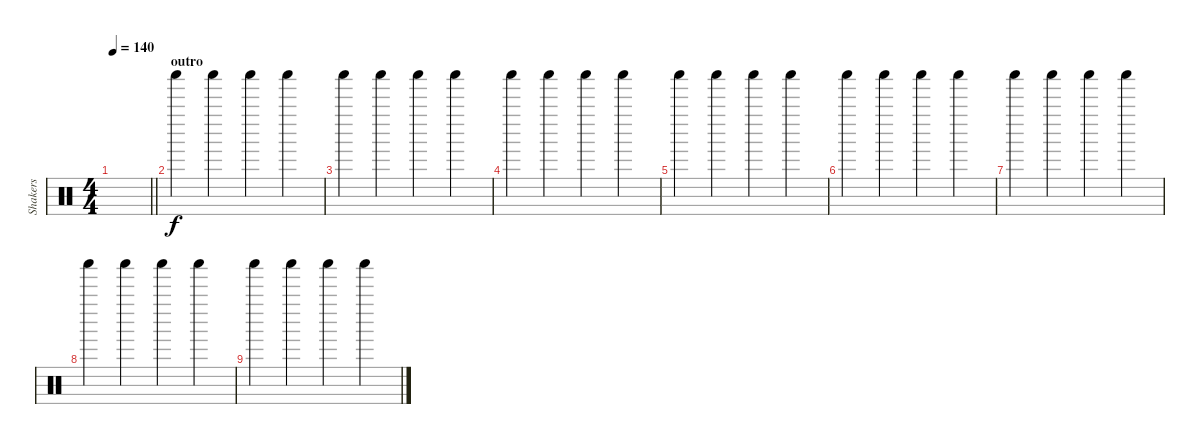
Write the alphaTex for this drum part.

\track ("Shakers" "Shakers") {instrument percussion}
\staff {score}
\articulation defaults
\ts (4 4)
\tempo 140
\clef neutral
\barLineRight lightlight
\ks c
|
\section ("" "outro")
"Shaker (hit)".4 "Shaker (hit)".4 "Shaker (hit)".4 "Shaker (hit)".4 |
"Shaker (hit)".4 "Shaker (hit)".4 "Shaker (hit)".4 "Shaker (hit)".4 |
"Shaker (hit)".4 "Shaker (hit)".4 "Shaker (hit)".4 "Shaker (hit)".4 |
"Shaker (hit)".4 "Shaker (hit)".4 "Shaker (hit)".4 "Shaker (hit)".4 |
"Shaker (hit)".4 "Shaker (hit)".4 "Shaker (hit)".4 "Shaker (hit)".4 |
"Shaker (hit)".4 "Shaker (hit)".4 "Shaker (hit)".4 "Shaker (hit)".4 |
"Shaker (hit)".4 "Shaker (hit)".4 "Shaker (hit)".4 "Shaker (hit)".4 |
"Shaker (hit)".4 "Shaker (hit)".4 "Shaker (hit)".4 "Shaker (hit)".4
